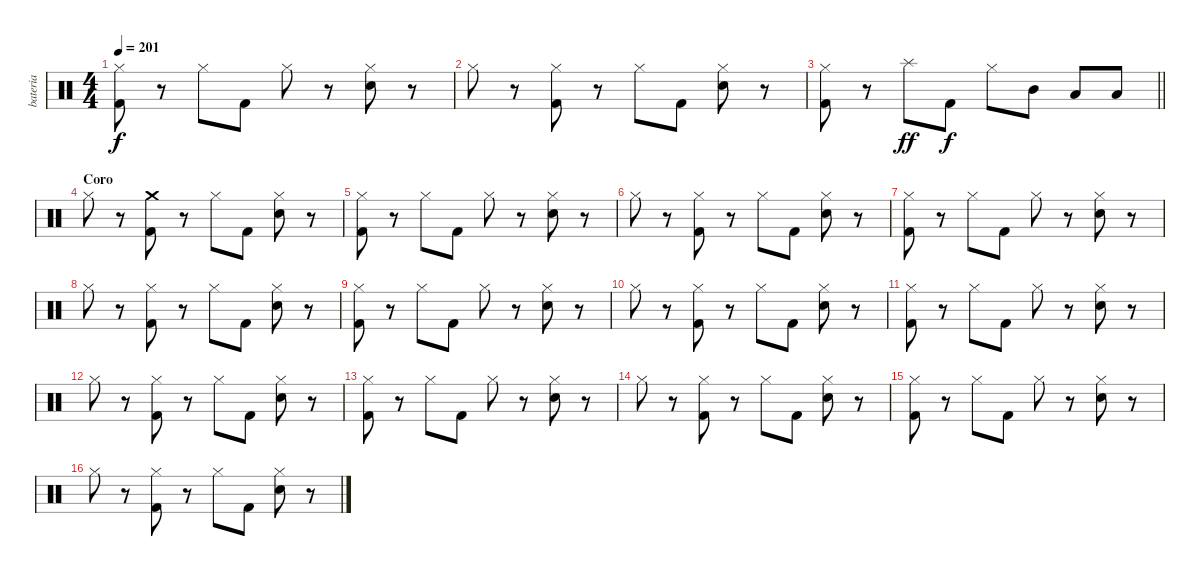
\track ("bateria" "bateria") {solo instrument percussion}
\staff {score}
\articulation defaults
\ts (4 4)
\tempo 201
\clef neutral
\ks c
("Hi-Hat (closed)" "Kick (hit) 2").8{dy f} r.8 "Hi-Hat (closed)".8 "Kick (hit) 2".8 "Hi-Hat (closed)".8 r.8 ("Hi-Hat (closed)" "Electric Snare (hit)").8 r.8 |
"Hi-Hat (closed)".8 r.8 ("Hi-Hat (closed)" "Kick (hit) 2").8 r.8 "Hi-Hat (closed)".8 "Kick (hit) 2".8 ("Hi-Hat (closed)" "Electric Snare (hit)").8 r.8 |
\barLineRight lightlight
("Hi-Hat (closed)" "Kick (hit) 2").8 r.8 "Splash (hit)".8{dy ff} "Kick (hit) 2".8{dy f} "Hi-Hat (closed)".8 "Mid Tom (hit)".8 "Low Tom (hit)".8 "Low Tom (hit)".8 |
\section ("" "Coro")
"Hi-Hat (closed)".8 r.8 ("Crash medium (hit)" "Kick (hit) 2").8 r.8 "Hi-Hat (closed)".8 "Kick (hit) 2".8 ("Hi-Hat (closed)" "Electric Snare (hit)").8 r.8 |
("Hi-Hat (closed)" "Kick (hit) 2").8 r.8 "Hi-Hat (closed)".8 "Kick (hit) 2".8 "Hi-Hat (closed)".8 r.8 ("Hi-Hat (closed)" "Electric Snare (hit)").8 r.8 |
"Hi-Hat (closed)".8 r.8 ("Hi-Hat (closed)" "Kick (hit) 2").8 r.8 "Hi-Hat (closed)".8 "Kick (hit) 2".8 ("Hi-Hat (closed)" "Electric Snare (hit)").8 r.8 |
("Hi-Hat (closed)" "Kick (hit) 2").8 r.8 "Hi-Hat (closed)".8 "Kick (hit) 2".8 "Hi-Hat (closed)".8 r.8 ("Hi-Hat (closed)" "Electric Snare (hit)").8 r.8 |
"Hi-Hat (closed)".8 r.8 ("Hi-Hat (closed)" "Kick (hit) 2").8 r.8 "Hi-Hat (closed)".8 "Kick (hit) 2".8 ("Hi-Hat (closed)" "Electric Snare (hit)").8 r.8 |
("Hi-Hat (closed)" "Kick (hit) 2").8 r.8 "Hi-Hat (closed)".8 "Kick (hit) 2".8 "Hi-Hat (closed)".8 r.8 ("Hi-Hat (closed)" "Electric Snare (hit)").8 r.8 |
"Hi-Hat (closed)".8 r.8 ("Hi-Hat (closed)" "Kick (hit) 2").8 r.8 "Hi-Hat (closed)".8 "Kick (hit) 2".8 ("Hi-Hat (closed)" "Electric Snare (hit)").8 r.8 |
("Hi-Hat (closed)" "Kick (hit) 2").8 r.8 "Hi-Hat (closed)".8 "Kick (hit) 2".8 "Hi-Hat (closed)".8 r.8 ("Hi-Hat (closed)" "Electric Snare (hit)").8 r.8 |
"Hi-Hat (closed)".8 r.8 ("Hi-Hat (closed)" "Kick (hit) 2").8 r.8 "Hi-Hat (closed)".8 "Kick (hit) 2".8 ("Hi-Hat (closed)" "Electric Snare (hit)").8 r.8 |
("Hi-Hat (closed)" "Kick (hit) 2").8 r.8 "Hi-Hat (closed)".8 "Kick (hit) 2".8 "Hi-Hat (closed)".8 r.8 ("Hi-Hat (closed)" "Electric Snare (hit)").8 r.8 |
"Hi-Hat (closed)".8 r.8 ("Hi-Hat (closed)" "Kick (hit) 2").8 r.8 "Hi-Hat (closed)".8 "Kick (hit) 2".8 ("Hi-Hat (closed)" "Electric Snare (hit)").8 r.8 |
("Hi-Hat (closed)" "Kick (hit) 2").8 r.8 "Hi-Hat (closed)".8 "Kick (hit) 2".8 "Hi-Hat (closed)".8 r.8 ("Hi-Hat (closed)" "Electric Snare (hit)").8 r.8 |
"Hi-Hat (closed)".8 r.8 ("Hi-Hat (closed)" "Kick (hit) 2").8 r.8 "Hi-Hat (closed)".8 "Kick (hit) 2".8 ("Hi-Hat (closed)" "Electric Snare (hit)").8 r.8
